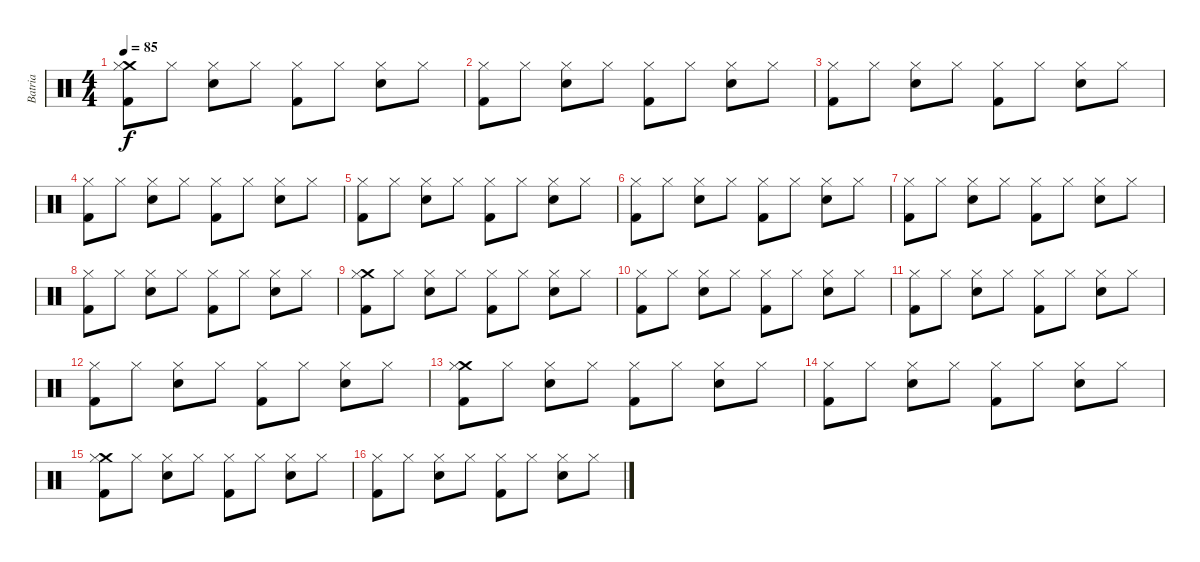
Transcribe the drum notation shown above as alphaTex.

\track ("Batria" "Batria") {instrument percussion}
\staff {score}
\articulation defaults
\ts (4 4)
\tempo 85
\clef neutral
\ks c
("Crash medium (hit)" "Hi-Hat (closed)" "Kick (hit) 2").8{dy f} "Hi-Hat (closed)".8 ("Hi-Hat (closed)" "Snare (hit) 2").8 "Hi-Hat (closed)".8 ("Hi-Hat (closed)" "Kick (hit) 2").8 "Hi-Hat (closed)".8 ("Hi-Hat (closed)" "Snare (hit) 2").8 "Hi-Hat (closed)".8 |
("Hi-Hat (closed)" "Kick (hit) 2").8 "Hi-Hat (closed)".8 ("Hi-Hat (closed)" "Snare (hit) 2").8 "Hi-Hat (closed)".8 ("Hi-Hat (closed)" "Kick (hit) 2").8 "Hi-Hat (closed)".8 ("Hi-Hat (closed)" "Snare (hit) 2").8 "Hi-Hat (closed)".8 |
("Hi-Hat (closed)" "Kick (hit) 2").8 "Hi-Hat (closed)".8 ("Hi-Hat (closed)" "Snare (hit) 2").8 "Hi-Hat (closed)".8 ("Hi-Hat (closed)" "Kick (hit) 2").8 "Hi-Hat (closed)".8 ("Hi-Hat (closed)" "Snare (hit) 2").8 "Hi-Hat (closed)".8 |
("Hi-Hat (closed)" "Kick (hit) 2").8 "Hi-Hat (closed)".8 ("Hi-Hat (closed)" "Snare (hit) 2").8 "Hi-Hat (closed)".8 ("Hi-Hat (closed)" "Kick (hit) 2").8 "Hi-Hat (closed)".8 ("Hi-Hat (closed)" "Snare (hit) 2").8 "Hi-Hat (closed)".8 |
("Hi-Hat (closed)" "Kick (hit) 2").8 "Hi-Hat (closed)".8 ("Hi-Hat (closed)" "Snare (hit) 2").8 "Hi-Hat (closed)".8 ("Hi-Hat (closed)" "Kick (hit) 2").8 "Hi-Hat (closed)".8 ("Hi-Hat (closed)" "Snare (hit) 2").8 "Hi-Hat (closed)".8 |
("Hi-Hat (closed)" "Kick (hit) 2").8 "Hi-Hat (closed)".8 ("Hi-Hat (closed)" "Snare (hit) 2").8 "Hi-Hat (closed)".8 ("Hi-Hat (closed)" "Kick (hit) 2").8 "Hi-Hat (closed)".8 ("Hi-Hat (closed)" "Snare (hit) 2").8 "Hi-Hat (closed)".8 |
("Hi-Hat (closed)" "Kick (hit) 2").8 "Hi-Hat (closed)".8 ("Hi-Hat (closed)" "Snare (hit) 2").8 "Hi-Hat (closed)".8 ("Hi-Hat (closed)" "Kick (hit) 2").8 "Hi-Hat (closed)".8 ("Hi-Hat (closed)" "Snare (hit) 2").8 "Hi-Hat (closed)".8 |
("Hi-Hat (closed)" "Kick (hit) 2").8 "Hi-Hat (closed)".8 ("Hi-Hat (closed)" "Snare (hit) 2").8 "Hi-Hat (closed)".8 ("Hi-Hat (closed)" "Kick (hit) 2").8 "Hi-Hat (closed)".8 ("Hi-Hat (closed)" "Snare (hit) 2").8 "Hi-Hat (closed)".8 |
("Crash medium (hit)" "Hi-Hat (closed)" "Kick (hit) 2").8 "Hi-Hat (closed)".8 ("Hi-Hat (closed)" "Snare (hit) 2").8 "Hi-Hat (closed)".8 ("Hi-Hat (closed)" "Kick (hit) 2").8 "Hi-Hat (closed)".8 ("Hi-Hat (closed)" "Snare (hit) 2").8 "Hi-Hat (closed)".8 |
("Hi-Hat (closed)" "Kick (hit) 2").8 "Hi-Hat (closed)".8 ("Hi-Hat (closed)" "Snare (hit) 2").8 "Hi-Hat (closed)".8 ("Hi-Hat (closed)" "Kick (hit) 2").8 "Hi-Hat (closed)".8 ("Hi-Hat (closed)" "Snare (hit) 2").8 "Hi-Hat (closed)".8 |
("Hi-Hat (closed)" "Kick (hit) 2").8 "Hi-Hat (closed)".8 ("Hi-Hat (closed)" "Snare (hit) 2").8 "Hi-Hat (closed)".8 ("Hi-Hat (closed)" "Kick (hit) 2").8 "Hi-Hat (closed)".8 ("Hi-Hat (closed)" "Snare (hit) 2").8 "Hi-Hat (closed)".8 |
("Hi-Hat (closed)" "Kick (hit) 2").8 "Hi-Hat (closed)".8 ("Hi-Hat (closed)" "Snare (hit) 2").8 "Hi-Hat (closed)".8 ("Hi-Hat (closed)" "Kick (hit) 2").8 "Hi-Hat (closed)".8 ("Hi-Hat (closed)" "Snare (hit) 2").8 "Hi-Hat (closed)".8 |
("Crash medium (hit)" "Hi-Hat (closed)" "Kick (hit) 2").8 "Hi-Hat (closed)".8 ("Hi-Hat (closed)" "Snare (hit) 2").8 "Hi-Hat (closed)".8 ("Hi-Hat (closed)" "Kick (hit) 2").8 "Hi-Hat (closed)".8 ("Hi-Hat (closed)" "Snare (hit) 2").8 "Hi-Hat (closed)".8 |
("Hi-Hat (closed)" "Kick (hit) 2").8 "Hi-Hat (closed)".8 ("Hi-Hat (closed)" "Snare (hit) 2").8 "Hi-Hat (closed)".8 ("Hi-Hat (closed)" "Kick (hit) 2").8 "Hi-Hat (closed)".8 ("Hi-Hat (closed)" "Snare (hit) 2").8 "Hi-Hat (closed)".8 |
("Crash medium (hit)" "Hi-Hat (closed)" "Kick (hit) 2").8 "Hi-Hat (closed)".8 ("Hi-Hat (closed)" "Snare (hit) 2").8 "Hi-Hat (closed)".8 ("Hi-Hat (closed)" "Kick (hit) 2").8 "Hi-Hat (closed)".8 ("Hi-Hat (closed)" "Snare (hit) 2").8 "Hi-Hat (closed)".8 |
("Hi-Hat (closed)" "Kick (hit) 2").8 "Hi-Hat (closed)".8 ("Hi-Hat (closed)" "Snare (hit) 2").8 "Hi-Hat (closed)".8 ("Hi-Hat (closed)" "Kick (hit) 2").8 "Hi-Hat (closed)".8 ("Hi-Hat (closed)" "Snare (hit) 2").8 "Hi-Hat (closed)".8
